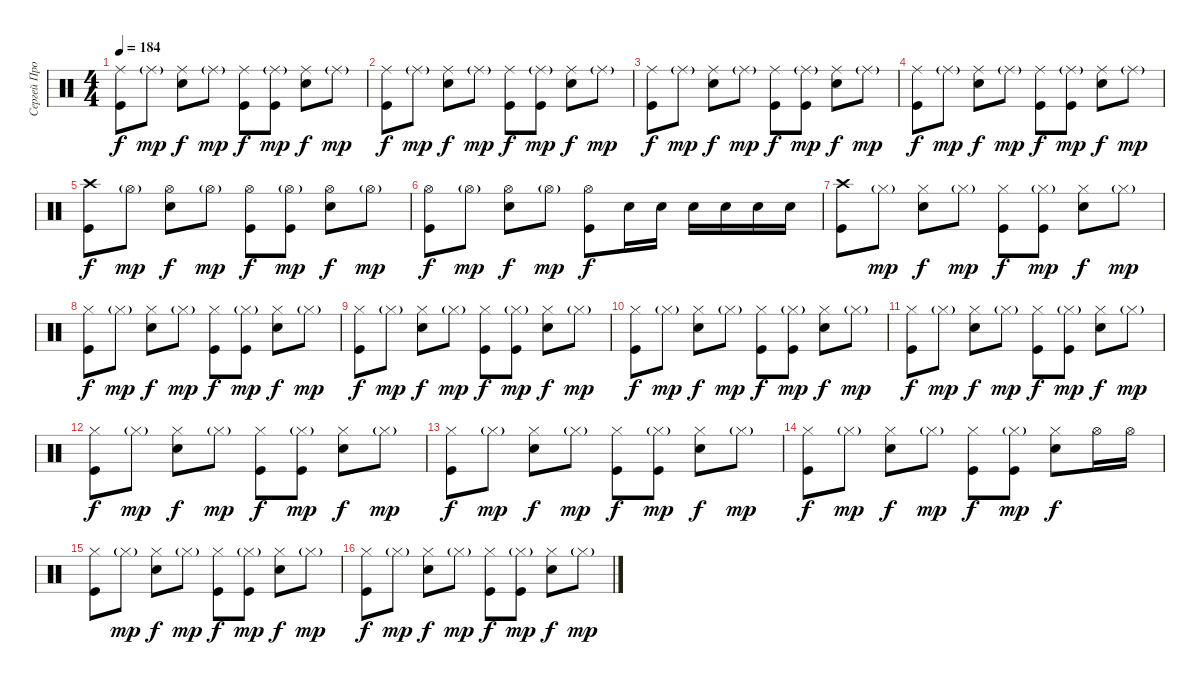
\track ("Сергей Прокофьев" "Сергей Про") {instrument percussion}
\staff {score}
\articulation defaults
\ts (4 4)
\tempo 184
\clef neutral
\ks c
("Ride (middle)" "Kick (hit)").8{dy f} "Ride (middle)"{g}.8{dy mp} ("Ride (middle)" "Electric Snare (hit)").8{dy f} "Ride (middle)"{g}.8{dy mp} ("Ride (middle)" "Kick (hit)").8{dy f} ("Ride (middle)"{g} "Kick (hit)").8{dy mp} ("Ride (middle)" "Electric Snare (hit)").8{dy f} "Ride (middle)"{g}.8{dy mp} |
("Ride (middle)" "Kick (hit)").8{dy f} "Ride (middle)"{g}.8{dy mp} ("Ride (middle)" "Electric Snare (hit)").8{dy f} "Ride (middle)"{g}.8{dy mp} ("Ride (middle)" "Kick (hit)").8{dy f} ("Ride (middle)"{g} "Kick (hit)").8{dy mp} ("Ride (middle)" "Electric Snare (hit)").8{dy f} "Ride (middle)"{g}.8{dy mp} |
("Ride (middle)" "Kick (hit)").8{dy f} "Ride (middle)"{g}.8{dy mp} ("Ride (middle)" "Electric Snare (hit)").8{dy f} "Ride (middle)"{g}.8{dy mp} ("Ride (middle)" "Kick (hit)").8{dy f} ("Ride (middle)"{g} "Kick (hit)").8{dy mp} ("Ride (middle)" "Electric Snare (hit)").8{dy f} "Ride (middle)"{g}.8{dy mp} |
("Ride (middle)" "Kick (hit)").8{dy f} "Ride (middle)"{g}.8{dy mp} ("Ride (middle)" "Electric Snare (hit)").8{dy f} "Ride (middle)"{g}.8{dy mp} ("Ride (middle)" "Kick (hit)").8{dy f} ("Ride (middle)"{g} "Kick (hit)").8{dy mp} ("Ride (middle)" "Electric Snare (hit)").8{dy f} "Ride (middle)"{g}.8{dy mp} |
("Crash high (hit)" "Kick (hit)").8{dy f} "Hi-Hat (open)"{g}.8{dy mp} ("Hi-Hat (open)" "Electric Snare (hit)").8{dy f} "Hi-Hat (open)"{g}.8{dy mp} ("Hi-Hat (open)" "Kick (hit)").8{dy f} ("Hi-Hat (open)"{g} "Kick (hit)").8{dy mp} ("Hi-Hat (open)" "Electric Snare (hit)").8{dy f} "Hi-Hat (open)"{g}.8{dy mp} |
("Hi-Hat (open)" "Kick (hit)").8{dy f} "Hi-Hat (open)"{g}.8{dy mp} ("Hi-Hat (open)" "Electric Snare (hit)").8{dy f} "Hi-Hat (open)"{g}.8{dy mp} ("Hi-Hat (open)" "Kick (hit)").8{dy f} "Electric Snare (hit)".16 "Electric Snare (hit)".16 "Electric Snare (hit)".16 "Electric Snare (hit)".16 "Electric Snare (hit)".16 "Electric Snare (hit)".16 |
("Crash high (hit)" "Kick (hit)").8 "Hi-Hat (closed)"{g}.8{dy mp} ("Hi-Hat (closed)" "Electric Snare (hit)").8{dy f} "Hi-Hat (closed)"{g}.8{dy mp} ("Hi-Hat (closed)" "Kick (hit)").8{dy f} ("Hi-Hat (closed)"{g} "Kick (hit)").8{dy mp} ("Hi-Hat (closed)" "Electric Snare (hit)").8{dy f} "Hi-Hat (closed)"{g}.8{dy mp} |
("Hi-Hat (closed)" "Kick (hit)").8{dy f} "Hi-Hat (closed)"{g}.8{dy mp} ("Hi-Hat (closed)" "Electric Snare (hit)").8{dy f} "Hi-Hat (closed)"{g}.8{dy mp} ("Hi-Hat (closed)" "Kick (hit)").8{dy f} ("Hi-Hat (closed)"{g} "Kick (hit)").8{dy mp} ("Hi-Hat (closed)" "Electric Snare (hit)").8{dy f} "Hi-Hat (closed)"{g}.8{dy mp} |
("Hi-Hat (closed)" "Kick (hit)").8{dy f} "Hi-Hat (closed)"{g}.8{dy mp} ("Hi-Hat (closed)" "Electric Snare (hit)").8{dy f} "Hi-Hat (closed)"{g}.8{dy mp} ("Hi-Hat (closed)" "Kick (hit)").8{dy f} ("Hi-Hat (closed)"{g} "Kick (hit)").8{dy mp} ("Hi-Hat (closed)" "Electric Snare (hit)").8{dy f} "Hi-Hat (closed)"{g}.8{dy mp} |
("Hi-Hat (closed)" "Kick (hit)").8{dy f} "Hi-Hat (closed)"{g}.8{dy mp} ("Hi-Hat (closed)" "Electric Snare (hit)").8{dy f} "Hi-Hat (closed)"{g}.8{dy mp} ("Hi-Hat (closed)" "Kick (hit)").8{dy f} ("Hi-Hat (closed)"{g} "Kick (hit)").8{dy mp} ("Hi-Hat (closed)" "Electric Snare (hit)").8{dy f} "Hi-Hat (closed)"{g}.8{dy mp} |
("Hi-Hat (closed)" "Kick (hit)").8{dy f} "Hi-Hat (closed)"{g}.8{dy mp} ("Hi-Hat (closed)" "Electric Snare (hit)").8{dy f} "Hi-Hat (closed)"{g}.8{dy mp} ("Hi-Hat (closed)" "Kick (hit)").8{dy f} ("Hi-Hat (closed)"{g} "Kick (hit)").8{dy mp} ("Hi-Hat (closed)" "Electric Snare (hit)").8{dy f} "Hi-Hat (closed)"{g}.8{dy mp} |
("Hi-Hat (closed)" "Kick (hit)").8{dy f} "Hi-Hat (closed)"{g}.8{dy mp} ("Hi-Hat (closed)" "Electric Snare (hit)").8{dy f} "Hi-Hat (closed)"{g}.8{dy mp} ("Hi-Hat (closed)" "Kick (hit)").8{dy f} ("Hi-Hat (closed)"{g} "Kick (hit)").8{dy mp} ("Hi-Hat (closed)" "Electric Snare (hit)").8{dy f} "Hi-Hat (closed)"{g}.8{dy mp} |
("Hi-Hat (closed)" "Kick (hit)").8{dy f} "Hi-Hat (closed)"{g}.8{dy mp} ("Hi-Hat (closed)" "Electric Snare (hit)").8{dy f} "Hi-Hat (closed)"{g}.8{dy mp} ("Hi-Hat (closed)" "Kick (hit)").8{dy f} ("Hi-Hat (closed)"{g} "Kick (hit)").8{dy mp} ("Hi-Hat (closed)" "Electric Snare (hit)").8{dy f} "Hi-Hat (closed)"{g}.8{dy mp} |
("Hi-Hat (closed)" "Kick (hit)").8{dy f} "Hi-Hat (closed)"{g}.8{dy mp} ("Hi-Hat (closed)" "Electric Snare (hit)").8{dy f} "Hi-Hat (closed)"{g}.8{dy mp} ("Hi-Hat (closed)" "Kick (hit)").8{dy f} ("Hi-Hat (closed)"{g} "Kick (hit)").8{dy mp} ("Hi-Hat (closed)" "Electric Snare (hit)").8{dy f} "Hi-Hat (open)".16 "Hi-Hat (open)".16 |
("Hi-Hat (closed)" "Kick (hit)").8 "Hi-Hat (closed)"{g}.8{dy mp} ("Hi-Hat (closed)" "Electric Snare (hit)").8{dy f} "Hi-Hat (closed)"{g}.8{dy mp} ("Hi-Hat (closed)" "Kick (hit)").8{dy f} ("Hi-Hat (closed)"{g} "Kick (hit)").8{dy mp} ("Hi-Hat (closed)" "Electric Snare (hit)").8{dy f} "Hi-Hat (closed)"{g}.8{dy mp} |
("Hi-Hat (closed)" "Kick (hit)").8{dy f} "Hi-Hat (closed)"{g}.8{dy mp} ("Hi-Hat (closed)" "Electric Snare (hit)").8{dy f} "Hi-Hat (closed)"{g}.8{dy mp} ("Hi-Hat (closed)" "Kick (hit)").8{dy f} ("Hi-Hat (closed)"{g} "Kick (hit)").8{dy mp} ("Hi-Hat (closed)" "Electric Snare (hit)").8{dy f} "Hi-Hat (closed)"{g}.8{dy mp}
